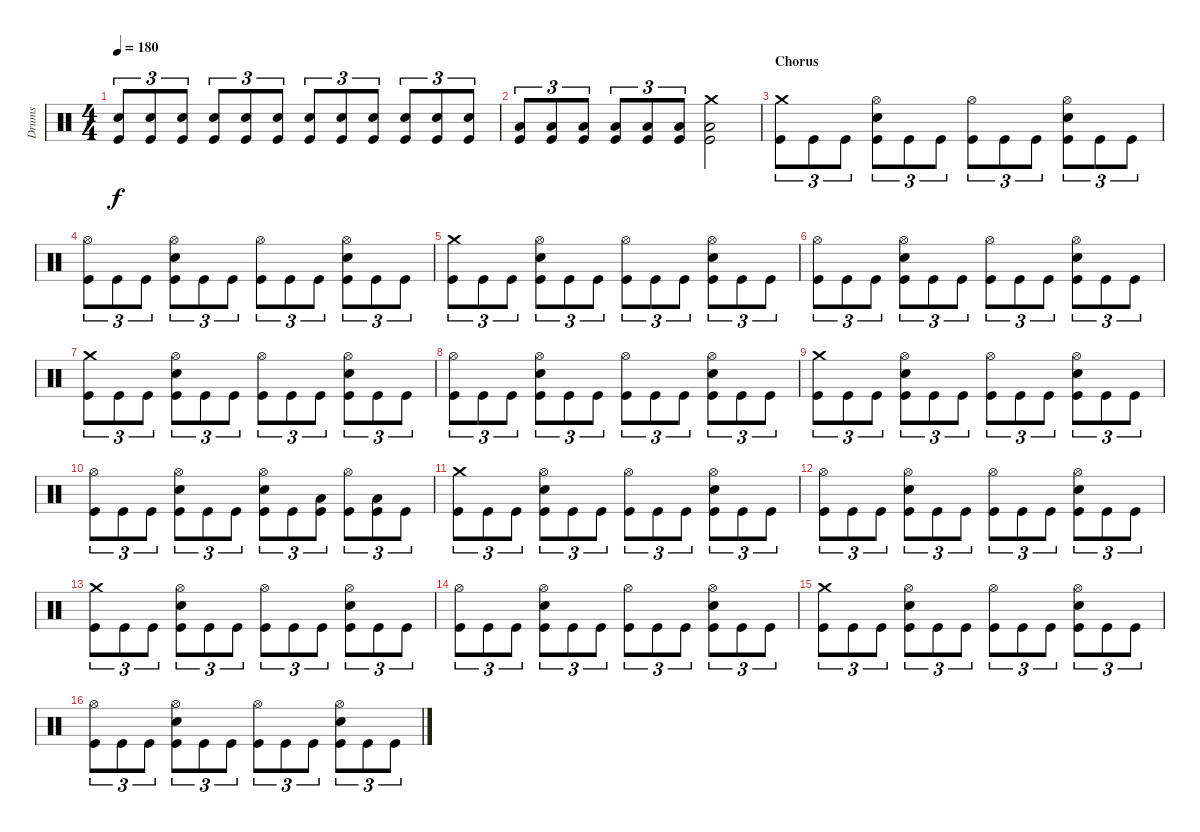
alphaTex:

\track ("Drums" "Drums") {instrument percussion}
\staff {score}
\articulation defaults
\ts (4 4)
\tempo 180
\clef neutral
\ks c
("Electric Snare (hit)" "Kick (hit)").8{tu (3 2) dy f} ("Electric Snare (hit)" "Kick (hit)").8{tu (3 2)} ("Electric Snare (hit)" "Kick (hit)").8{tu (3 2)} ("Electric Snare (hit)" "Kick (hit)").8{tu (3 2)} ("Electric Snare (hit)" "Kick (hit)").8{tu (3 2)} ("Electric Snare (hit)" "Kick (hit)").8{tu (3 2)} ("Electric Snare (hit)" "Kick (hit)").8{tu (3 2)} ("Electric Snare (hit)" "Kick (hit)").8{tu (3 2)} ("Electric Snare (hit)" "Kick (hit)").8{tu (3 2)} ("Electric Snare (hit)" "Kick (hit)").8{tu (3 2)} ("Electric Snare (hit)" "Kick (hit)").8{tu (3 2)} ("Electric Snare (hit)" "Kick (hit)").8{tu (3 2)} |
("Low Tom (hit)" "Kick (hit)").8{tu (3 2)} ("Low Tom (hit)" "Kick (hit)").8{tu (3 2)} ("Low Tom (hit)" "Kick (hit)").8{tu (3 2)} ("Low Tom (hit)" "Kick (hit)").8{tu (3 2)} ("Low Tom (hit)" "Kick (hit)").8{tu (3 2)} ("Low Tom (hit)" "Kick (hit)").8{tu (3 2)} ("Crash medium (hit)" "Low Tom (hit)" "Kick (hit)").2 |
\section ("" "Chorus")
("Crash medium (hit)" "Kick (hit)").8{tu (3 2)} "Kick (hit)".8{tu (3 2)} "Kick (hit)".8{tu (3 2)} ("Hi-Hat (open)" "Electric Snare (hit)" "Kick (hit)").8{tu (3 2)} "Kick (hit)".8{tu (3 2)} "Kick (hit)".8{tu (3 2)} ("Hi-Hat (open)" "Kick (hit)").8{tu (3 2)} "Kick (hit)".8{tu (3 2)} "Kick (hit)".8{tu (3 2)} ("Hi-Hat (open)" "Electric Snare (hit)" "Kick (hit)").8{tu (3 2)} "Kick (hit)".8{tu (3 2)} "Kick (hit)".8{tu (3 2)} |
("Hi-Hat (open)" "Kick (hit)").8{tu (3 2)} "Kick (hit)".8{tu (3 2)} "Kick (hit)".8{tu (3 2)} ("Hi-Hat (open)" "Electric Snare (hit)" "Kick (hit)").8{tu (3 2)} "Kick (hit)".8{tu (3 2)} "Kick (hit)".8{tu (3 2)} ("Hi-Hat (open)" "Kick (hit)").8{tu (3 2)} "Kick (hit)".8{tu (3 2)} "Kick (hit)".8{tu (3 2)} ("Hi-Hat (open)" "Electric Snare (hit)" "Kick (hit)").8{tu (3 2)} "Kick (hit)".8{tu (3 2)} "Kick (hit)".8{tu (3 2)} |
("Crash medium (hit)" "Kick (hit)").8{tu (3 2)} "Kick (hit)".8{tu (3 2)} "Kick (hit)".8{tu (3 2)} ("Hi-Hat (open)" "Electric Snare (hit)" "Kick (hit)").8{tu (3 2)} "Kick (hit)".8{tu (3 2)} "Kick (hit)".8{tu (3 2)} ("Hi-Hat (open)" "Kick (hit)").8{tu (3 2)} "Kick (hit)".8{tu (3 2)} "Kick (hit)".8{tu (3 2)} ("Hi-Hat (open)" "Electric Snare (hit)" "Kick (hit)").8{tu (3 2)} "Kick (hit)".8{tu (3 2)} "Kick (hit)".8{tu (3 2)} |
("Hi-Hat (open)" "Kick (hit)").8{tu (3 2)} "Kick (hit)".8{tu (3 2)} "Kick (hit)".8{tu (3 2)} ("Hi-Hat (open)" "Electric Snare (hit)" "Kick (hit)").8{tu (3 2)} "Kick (hit)".8{tu (3 2)} "Kick (hit)".8{tu (3 2)} ("Hi-Hat (open)" "Kick (hit)").8{tu (3 2)} "Kick (hit)".8{tu (3 2)} "Kick (hit)".8{tu (3 2)} ("Hi-Hat (open)" "Electric Snare (hit)" "Kick (hit)").8{tu (3 2)} "Kick (hit)".8{tu (3 2)} "Kick (hit)".8{tu (3 2)} |
("Crash medium (hit)" "Kick (hit)").8{tu (3 2)} "Kick (hit)".8{tu (3 2)} "Kick (hit)".8{tu (3 2)} ("Hi-Hat (open)" "Electric Snare (hit)" "Kick (hit)").8{tu (3 2)} "Kick (hit)".8{tu (3 2)} "Kick (hit)".8{tu (3 2)} ("Hi-Hat (open)" "Kick (hit)").8{tu (3 2)} "Kick (hit)".8{tu (3 2)} "Kick (hit)".8{tu (3 2)} ("Hi-Hat (open)" "Electric Snare (hit)" "Kick (hit)").8{tu (3 2)} "Kick (hit)".8{tu (3 2)} "Kick (hit)".8{tu (3 2)} |
("Hi-Hat (open)" "Kick (hit)").8{tu (3 2)} "Kick (hit)".8{tu (3 2)} "Kick (hit)".8{tu (3 2)} ("Hi-Hat (open)" "Electric Snare (hit)" "Kick (hit)").8{tu (3 2)} "Kick (hit)".8{tu (3 2)} "Kick (hit)".8{tu (3 2)} ("Hi-Hat (open)" "Kick (hit)").8{tu (3 2)} "Kick (hit)".8{tu (3 2)} "Kick (hit)".8{tu (3 2)} ("Hi-Hat (open)" "Electric Snare (hit)" "Kick (hit)").8{tu (3 2)} "Kick (hit)".8{tu (3 2)} "Kick (hit)".8{tu (3 2)} |
("Crash medium (hit)" "Kick (hit)").8{tu (3 2)} "Kick (hit)".8{tu (3 2)} "Kick (hit)".8{tu (3 2)} ("Hi-Hat (open)" "Electric Snare (hit)" "Kick (hit)").8{tu (3 2)} "Kick (hit)".8{tu (3 2)} "Kick (hit)".8{tu (3 2)} ("Hi-Hat (open)" "Kick (hit)").8{tu (3 2)} "Kick (hit)".8{tu (3 2)} "Kick (hit)".8{tu (3 2)} ("Hi-Hat (open)" "Electric Snare (hit)" "Kick (hit)").8{tu (3 2)} "Kick (hit)".8{tu (3 2)} "Kick (hit)".8{tu (3 2)} |
("Hi-Hat (open)" "Kick (hit)").8{tu (3 2)} "Kick (hit)".8{tu (3 2)} "Kick (hit)".8{tu (3 2)} ("Hi-Hat (open)" "Electric Snare (hit)" "Kick (hit)").8{tu (3 2)} "Kick (hit)".8{tu (3 2)} "Kick (hit)".8{tu (3 2)} ("Hi-Hat (open)" "Electric Snare (hit)" "Kick (hit)").8{tu (3 2)} "Kick (hit)".8{tu (3 2)} ("Low Tom (hit)" "Kick (hit)").8{tu (3 2)} ("Hi-Hat (open)" "Kick (hit)").8{tu (3 2)} ("Low Tom (hit)" "Kick (hit)").8{tu (3 2)} "Kick (hit)".8{tu (3 2)} |
("Crash medium (hit)" "Kick (hit)").8{tu (3 2)} "Kick (hit)".8{tu (3 2)} "Kick (hit)".8{tu (3 2)} ("Hi-Hat (open)" "Electric Snare (hit)" "Kick (hit)").8{tu (3 2)} "Kick (hit)".8{tu (3 2)} "Kick (hit)".8{tu (3 2)} ("Hi-Hat (open)" "Kick (hit)").8{tu (3 2)} "Kick (hit)".8{tu (3 2)} "Kick (hit)".8{tu (3 2)} ("Hi-Hat (open)" "Electric Snare (hit)" "Kick (hit)").8{tu (3 2)} "Kick (hit)".8{tu (3 2)} "Kick (hit)".8{tu (3 2)} |
("Hi-Hat (open)" "Kick (hit)").8{tu (3 2)} "Kick (hit)".8{tu (3 2)} "Kick (hit)".8{tu (3 2)} ("Hi-Hat (open)" "Electric Snare (hit)" "Kick (hit)").8{tu (3 2)} "Kick (hit)".8{tu (3 2)} "Kick (hit)".8{tu (3 2)} ("Hi-Hat (open)" "Kick (hit)").8{tu (3 2)} "Kick (hit)".8{tu (3 2)} "Kick (hit)".8{tu (3 2)} ("Hi-Hat (open)" "Electric Snare (hit)" "Kick (hit)").8{tu (3 2)} "Kick (hit)".8{tu (3 2)} "Kick (hit)".8{tu (3 2)} |
("Crash medium (hit)" "Kick (hit)").8{tu (3 2)} "Kick (hit)".8{tu (3 2)} "Kick (hit)".8{tu (3 2)} ("Hi-Hat (open)" "Electric Snare (hit)" "Kick (hit)").8{tu (3 2)} "Kick (hit)".8{tu (3 2)} "Kick (hit)".8{tu (3 2)} ("Hi-Hat (open)" "Kick (hit)").8{tu (3 2)} "Kick (hit)".8{tu (3 2)} "Kick (hit)".8{tu (3 2)} ("Hi-Hat (open)" "Electric Snare (hit)" "Kick (hit)").8{tu (3 2)} "Kick (hit)".8{tu (3 2)} "Kick (hit)".8{tu (3 2)} |
("Hi-Hat (open)" "Kick (hit)").8{tu (3 2)} "Kick (hit)".8{tu (3 2)} "Kick (hit)".8{tu (3 2)} ("Hi-Hat (open)" "Electric Snare (hit)" "Kick (hit)").8{tu (3 2)} "Kick (hit)".8{tu (3 2)} "Kick (hit)".8{tu (3 2)} ("Hi-Hat (open)" "Kick (hit)").8{tu (3 2)} "Kick (hit)".8{tu (3 2)} "Kick (hit)".8{tu (3 2)} ("Hi-Hat (open)" "Electric Snare (hit)" "Kick (hit)").8{tu (3 2)} "Kick (hit)".8{tu (3 2)} "Kick (hit)".8{tu (3 2)} |
("Crash medium (hit)" "Kick (hit)").8{tu (3 2)} "Kick (hit)".8{tu (3 2)} "Kick (hit)".8{tu (3 2)} ("Hi-Hat (open)" "Electric Snare (hit)" "Kick (hit)").8{tu (3 2)} "Kick (hit)".8{tu (3 2)} "Kick (hit)".8{tu (3 2)} ("Hi-Hat (open)" "Kick (hit)").8{tu (3 2)} "Kick (hit)".8{tu (3 2)} "Kick (hit)".8{tu (3 2)} ("Hi-Hat (open)" "Electric Snare (hit)" "Kick (hit)").8{tu (3 2)} "Kick (hit)".8{tu (3 2)} "Kick (hit)".8{tu (3 2)} |
("Hi-Hat (open)" "Kick (hit)").8{tu (3 2)} "Kick (hit)".8{tu (3 2)} "Kick (hit)".8{tu (3 2)} ("Hi-Hat (open)" "Electric Snare (hit)" "Kick (hit)").8{tu (3 2)} "Kick (hit)".8{tu (3 2)} "Kick (hit)".8{tu (3 2)} ("Hi-Hat (open)" "Kick (hit)").8{tu (3 2)} "Kick (hit)".8{tu (3 2)} "Kick (hit)".8{tu (3 2)} ("Hi-Hat (open)" "Electric Snare (hit)" "Kick (hit)").8{tu (3 2)} "Kick (hit)".8{tu (3 2)} "Kick (hit)".8{tu (3 2)}
